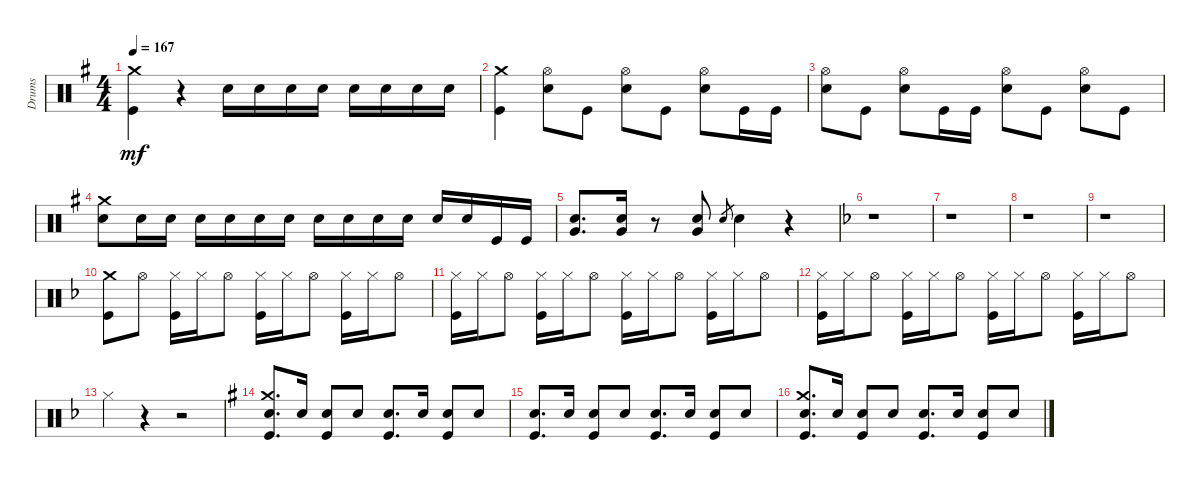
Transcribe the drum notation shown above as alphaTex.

\track ("Drums" "Drums") {instrument percussion}
\staff {score}
\articulation defaults
\ts (4 4)
\tempo 167
\clef neutral
\ks eminor
("Kick (hit)" "Crash medium (hit)").4{dy mf} r.4 "Snare (hit) 2".16 "Snare (hit) 2".16 "Snare (hit) 2".16 "Snare (hit) 2".16 "Snare (hit) 2".16 "Snare (hit) 2".16 "Snare (hit) 2".16 "Snare (hit) 2".16 |
("Crash medium (hit)" "Kick (hit)").4 ("Snare (hit) 2" "Hi-Hat (open)").8 "Kick (hit)".8 ("Snare (hit) 2" "Hi-Hat (open)").8 "Kick (hit)".8 ("Hi-Hat (open)" "Snare (hit) 2").8 "Kick (hit)".16 "Kick (hit)".16 |
("Hi-Hat (open)" "Snare (hit) 2").8 "Kick (hit)".8 ("Snare (hit) 2" "Hi-Hat (open)").8 "Kick (hit)".16 "Kick (hit)".16 ("Hi-Hat (open)" "Snare (hit) 2").8 "Kick (hit)".8 ("Snare (hit) 2" "Hi-Hat (open)").8 "Kick (hit)".8 |
("Crash medium (hit)" "Snare (hit) 2").8 "Snare (hit) 2".16 "Snare (hit) 2".16 "Snare (hit) 2".16 "Snare (hit) 2".16 "Snare (hit) 2".16 "Snare (hit) 2".16 "Snare (hit) 2".16 "Snare (hit) 2".16 "Snare (hit) 2".16 "Snare (hit) 2".16 "Snare (hit) 2".16 "Snare (hit) 2".16 "Kick (hit)".16 "Kick (hit)".16 |
("Very Low Tom (hit)" "Snare (hit) 2").8{d} ("Snare (hit) 2" "Very Low Tom (hit)").16 r.8 ("Very Low Tom (hit)" "Snare (hit) 2").8 "Snare (hit)".8{gr} "Snare (hit) 2".4 r.4 |
\ks dminor
r.1 |
r.1 |
r.1 |
r.1 |
("Crash medium (hit)" "Kick (hit)").8 "Hi-Hat (open)".8 ("Kick (hit)" "Hi-Hat (closed)").16 "Hi-Hat (closed)".16 "Hi-Hat (open)".8 ("Hi-Hat (closed)" "Kick (hit)").16 "Hi-Hat (closed)".16 "Hi-Hat (open)".8 ("Hi-Hat (closed)" "Kick (hit)").16 "Hi-Hat (closed)".16 "Hi-Hat (open)".8 |
("Hi-Hat (closed)" "Kick (hit)").16 "Hi-Hat (closed)".16 "Hi-Hat (open)".8 ("Hi-Hat (closed)" "Kick (hit)").16 "Hi-Hat (closed)".16 "Hi-Hat (open)".8 ("Hi-Hat (closed)" "Kick (hit)").16 "Hi-Hat (closed)".16 "Hi-Hat (open)".8 ("Hi-Hat (closed)" "Kick (hit)").16 "Hi-Hat (closed)".16 "Hi-Hat (open)".8 |
("Hi-Hat (closed)" "Kick (hit)").16 "Hi-Hat (closed)".16 "Hi-Hat (open)".8 ("Hi-Hat (closed)" "Kick (hit)").16 "Hi-Hat (closed)".16 "Hi-Hat (open)".8 ("Hi-Hat (closed)" "Kick (hit)").16 "Hi-Hat (closed)".16 "Hi-Hat (open)".8 ("Hi-Hat (closed)" "Kick (hit)").16 "Hi-Hat (closed)".16 "Hi-Hat (open)".8 |
"Hi-Hat (closed)".4 r.4 r.2 |
\ks eminor
("Kick (hit)" "Snare (hit) 2" "Crash medium (hit)").8{d} "Snare (hit) 2".16 ("Snare (hit) 2" "Kick (hit)").8 "Snare (hit) 2".8 ("Snare (hit) 2" "Kick (hit)").8{d} "Snare (hit) 2".16 ("Snare (hit) 2" "Kick (hit)").8 "Snare (hit) 2".8 |
("Snare (hit) 2" "Kick (hit)").8{d} "Snare (hit) 2".16 ("Snare (hit) 2" "Kick (hit)").8 "Snare (hit) 2".8 ("Snare (hit) 2" "Kick (hit)").8{d} "Snare (hit) 2".16 ("Snare (hit) 2" "Kick (hit)").8 "Snare (hit) 2".8 |
("Kick (hit)" "Snare (hit) 2" "Crash medium (hit)").8{d} "Snare (hit) 2".16 ("Snare (hit) 2" "Kick (hit)").8 "Snare (hit) 2".8 ("Snare (hit) 2" "Kick (hit)").8{d} "Snare (hit) 2".16 ("Snare (hit) 2" "Kick (hit)").8 "Snare (hit) 2".8
